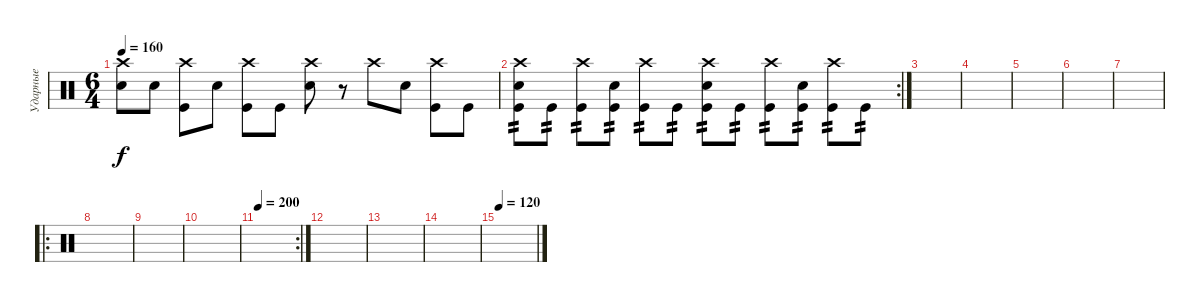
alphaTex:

\track ("Ударные" "Ударные") {instrument percussion}
\staff {score}
\articulation defaults
\ts (6 4)
\tempo 160
\clef neutral
\ks c
("Crash high (hit)" "Snare (hit) 2").8{dy f} "Snare (hit) 2".8 ("Crash high (hit)" "Kick (hit)").8 "Snare (hit) 2".8 ("Crash high (hit)" "Kick (hit)").8 "Kick (hit)".8 ("Crash high (hit)" "Snare (hit) 2").8 r.8 "Crash high (hit)".8 "Snare (hit) 2".8 ("Crash high (hit)" "Kick (hit)").8 "Kick (hit)".8 |
\rc 2
("Crash high (hit)" "Snare (hit) 2" "Kick (hit)").8{tp 2} "Kick (hit)".8{tp 2} ("Crash high (hit)" "Kick (hit)").8{tp 2} ("Snare (hit) 2" "Kick (hit)").8{tp 2} ("Crash high (hit)" "Kick (hit)").8{tp 2} "Kick (hit)".8{tp 2} ("Crash high (hit)" "Snare (hit) 2" "Kick (hit)").8{tp 2} "Kick (hit)".8{tp 2} ("Crash high (hit)" "Kick (hit)").8{tp 2} ("Snare (hit) 2" "Kick (hit)").8{tp 2} ("Crash high (hit)" "Kick (hit)").8{tp 2} "Kick (hit)".8{tp 2} |
|
|
|
|
|
\ro
|
|
|
\rc 2
\tempo 200
|
|
|
|
\tempo 120
